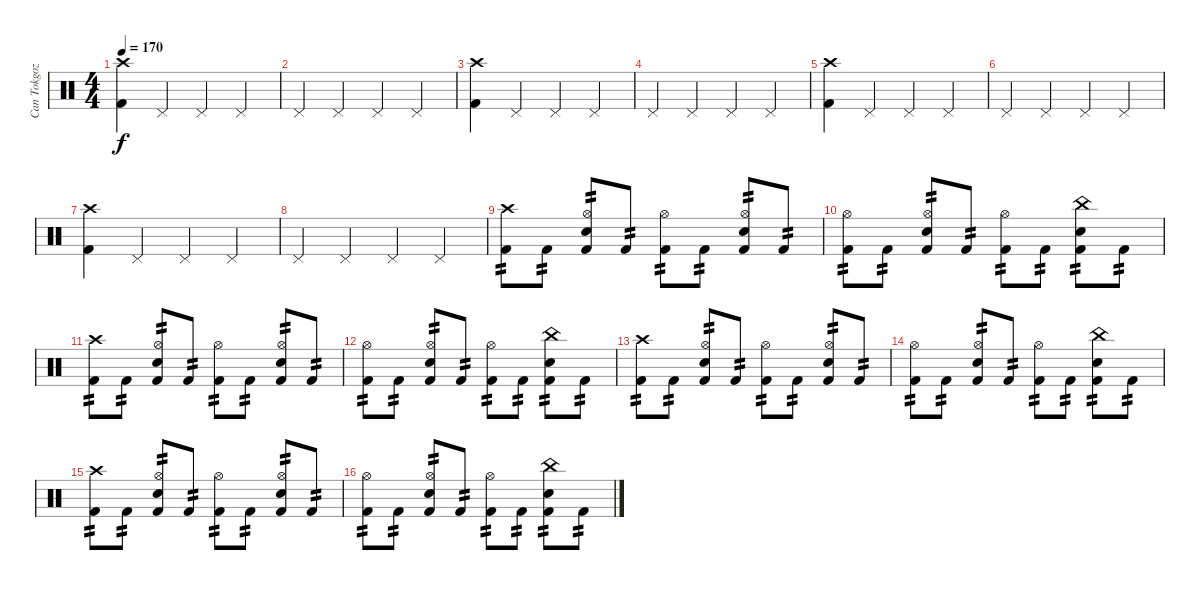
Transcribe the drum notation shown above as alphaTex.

\track ("Can Tokgoz" "Can Tokgoz") {instrument percussion}
\staff {score}
\articulation defaults
\ts (4 4)
\tempo 170
\clef neutral
\ks c
("Crash high (hit)" "Kick (hit) 2").4{dy f} "Pedal Hi-Hat (hit)".4 "Pedal Hi-Hat (hit)".4 "Pedal Hi-Hat (hit)".4 |
"Pedal Hi-Hat (hit)".4 "Pedal Hi-Hat (hit)".4 "Pedal Hi-Hat (hit)".4 "Pedal Hi-Hat (hit)".4 |
("Crash high (hit)" "Kick (hit) 2").4 "Pedal Hi-Hat (hit)".4 "Pedal Hi-Hat (hit)".4 "Pedal Hi-Hat (hit)".4 |
"Pedal Hi-Hat (hit)".4 "Pedal Hi-Hat (hit)".4 "Pedal Hi-Hat (hit)".4 "Pedal Hi-Hat (hit)".4 |
("Crash high (hit)" "Kick (hit) 2").4 "Pedal Hi-Hat (hit)".4 "Pedal Hi-Hat (hit)".4 "Pedal Hi-Hat (hit)".4 |
"Pedal Hi-Hat (hit)".4 "Pedal Hi-Hat (hit)".4 "Pedal Hi-Hat (hit)".4 "Pedal Hi-Hat (hit)".4 |
("Crash high (hit)" "Kick (hit) 2").4 "Pedal Hi-Hat (hit)".4 "Pedal Hi-Hat (hit)".4 "Pedal Hi-Hat (hit)".4 |
"Pedal Hi-Hat (hit)".4 "Pedal Hi-Hat (hit)".4 "Pedal Hi-Hat (hit)".4 "Pedal Hi-Hat (hit)".4 |
("Crash high (hit)" "Kick (hit) 2").8{tp 2} "Kick (hit) 2".8{tp 2} ("Hi-Hat (open)" "Snare (hit) 2" "Kick (hit) 2").8{tp 2} "Kick (hit) 2".8{tp 2} ("Hi-Hat (open)" "Kick (hit) 2").8{tp 2} "Kick (hit) 2".8{tp 2} ("Hi-Hat (open)" "Snare (hit) 2" "Kick (hit) 2").8{tp 2} "Kick (hit) 2".8{tp 2} |
("Hi-Hat (open)" "Kick (hit) 2").8{tp 2} "Kick (hit) 2".8{tp 2} ("Hi-Hat (open)" "Snare (hit) 2" "Kick (hit) 2").8{tp 2} "Kick (hit) 2".8{tp 2} ("Hi-Hat (open)" "Kick (hit) 2").8{tp 2} "Kick (hit) 2".8{tp 2} ("China (hit)" "Snare (hit) 2" "Kick (hit) 2").8{tp 2} "Kick (hit) 2".8{tp 2} |
("Crash high (hit)" "Kick (hit) 2").8{tp 2} "Kick (hit) 2".8{tp 2} ("Hi-Hat (open)" "Snare (hit) 2" "Kick (hit) 2").8{tp 2} "Kick (hit) 2".8{tp 2} ("Hi-Hat (open)" "Kick (hit) 2").8{tp 2} "Kick (hit) 2".8{tp 2} ("Hi-Hat (open)" "Snare (hit) 2" "Kick (hit) 2").8{tp 2} "Kick (hit) 2".8{tp 2} |
("Hi-Hat (open)" "Kick (hit) 2").8{tp 2} "Kick (hit) 2".8{tp 2} ("Hi-Hat (open)" "Snare (hit) 2" "Kick (hit) 2").8{tp 2} "Kick (hit) 2".8{tp 2} ("Hi-Hat (open)" "Kick (hit) 2").8{tp 2} "Kick (hit) 2".8{tp 2} ("China (hit)" "Snare (hit) 2" "Kick (hit) 2").8{tp 2} "Kick (hit) 2".8{tp 2} |
("Crash high (hit)" "Kick (hit) 2").8{tp 2} "Kick (hit) 2".8{tp 2} ("Hi-Hat (open)" "Snare (hit) 2" "Kick (hit) 2").8{tp 2} "Kick (hit) 2".8{tp 2} ("Hi-Hat (open)" "Kick (hit) 2").8{tp 2} "Kick (hit) 2".8{tp 2} ("Hi-Hat (open)" "Snare (hit) 2" "Kick (hit) 2").8{tp 2} "Kick (hit) 2".8{tp 2} |
("Hi-Hat (open)" "Kick (hit) 2").8{tp 2} "Kick (hit) 2".8{tp 2} ("Hi-Hat (open)" "Snare (hit) 2" "Kick (hit) 2").8{tp 2} "Kick (hit) 2".8{tp 2} ("Hi-Hat (open)" "Kick (hit) 2").8{tp 2} "Kick (hit) 2".8{tp 2} ("China (hit)" "Snare (hit) 2" "Kick (hit) 2").8{tp 2} "Kick (hit) 2".8{tp 2} |
("Crash high (hit)" "Kick (hit) 2").8{tp 2} "Kick (hit) 2".8{tp 2} ("Hi-Hat (open)" "Snare (hit) 2" "Kick (hit) 2").8{tp 2} "Kick (hit) 2".8{tp 2} ("Hi-Hat (open)" "Kick (hit) 2").8{tp 2} "Kick (hit) 2".8{tp 2} ("Hi-Hat (open)" "Snare (hit) 2" "Kick (hit) 2").8{tp 2} "Kick (hit) 2".8{tp 2} |
("Hi-Hat (open)" "Kick (hit) 2").8{tp 2} "Kick (hit) 2".8{tp 2} ("Hi-Hat (open)" "Snare (hit) 2" "Kick (hit) 2").8{tp 2} "Kick (hit) 2".8{tp 2} ("Hi-Hat (open)" "Kick (hit) 2").8{tp 2} "Kick (hit) 2".8{tp 2} ("China (hit)" "Snare (hit) 2" "Kick (hit) 2").8{tp 2} "Kick (hit) 2".8{tp 2}
